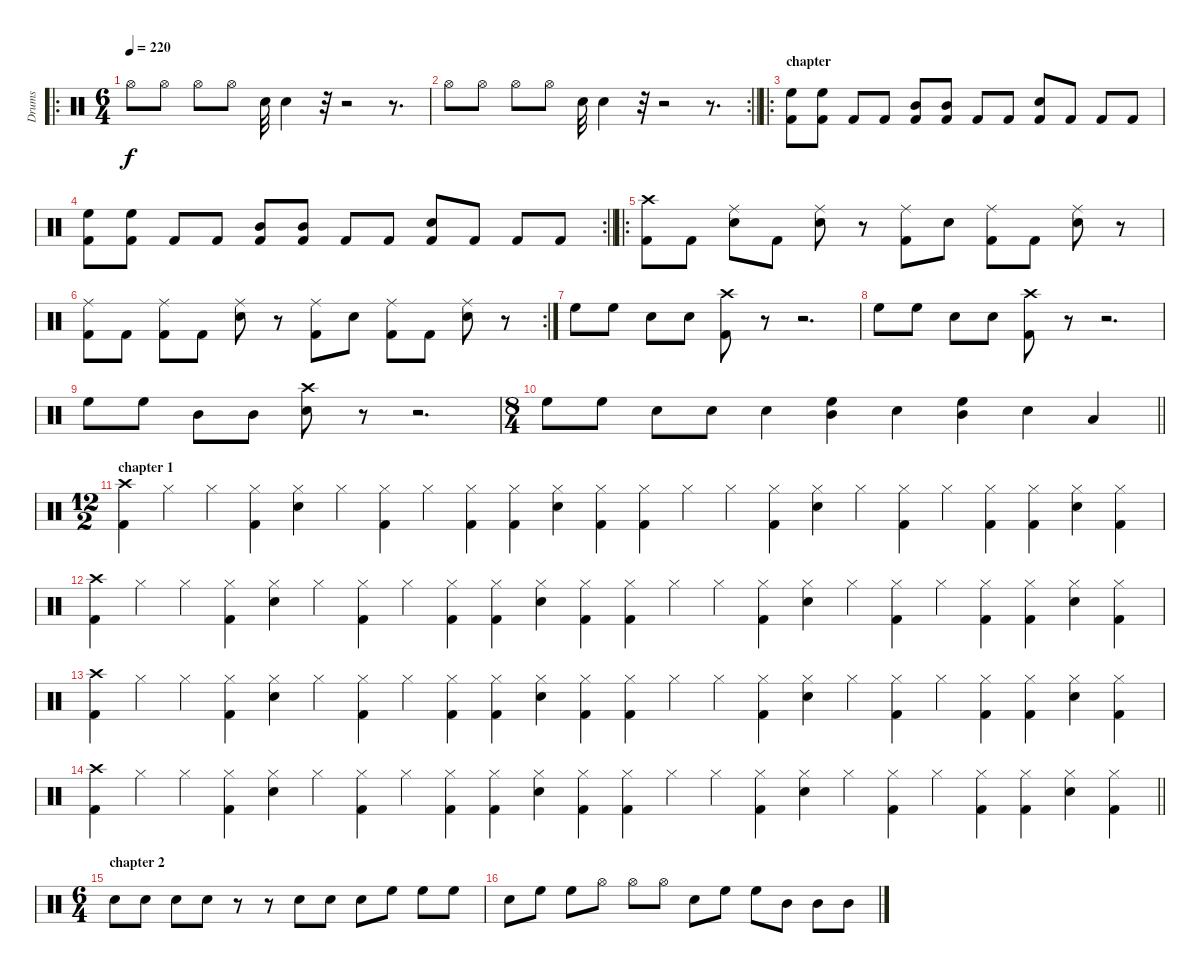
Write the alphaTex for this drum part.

\track ("Drums" "Drums") {instrument percussion}
\staff {score}
\articulation defaults
\ro
\ts (6 4)
\tempo 220
\clef neutral
\ks c "Hi-Hat (open)".8{dy f} "Hi-Hat (open)".8 "Hi-Hat (open)".8 "Hi-Hat (open)".8 "Snare (hit) 2".32 "Snare (hit) 2".4
r.32 r.2 r.8{d} |
\rc 2
\barLineRight lightlight "Hi-Hat (open)".8 "Hi-Hat (open)".8 "Hi-Hat (open)".8 "Hi-Hat (open)".8 "Snare (hit) 2".32 "Snare (hit) 2".4
r.32 r.2 r.8{d} |
\ro
\section ("" "chapter ")
("High Floor Tom (hit)" "Kick (hit) 2").8 ("High Floor Tom (hit)" "Kick (hit) 2").8 "Kick (hit) 2".8 "Kick (hit) 2".8 ("Mid Tom (hit)" "Kick (hit) 2").8 ("Mid Tom (hit)" "Kick (hit) 2").8 "Kick (hit) 2".8 "Kick (hit) 2".8 ("Snare (hit) 2" "Kick (hit) 2").8 "Kick (hit) 2".8 "Kick (hit) 2".8 "Kick (hit) 2".8 |
\rc 2
\barLineRight lightlight
("High Floor Tom (hit)" "Kick (hit) 2").8 ("High Floor Tom (hit)" "Kick (hit) 2").8 "Kick (hit) 2".8 "Kick (hit) 2".8 ("Mid Tom (hit)" "Kick (hit) 2").8 ("Mid Tom (hit)" "Kick (hit) 2").8 "Kick (hit) 2".8 "Kick (hit) 2".8 ("Snare (hit) 2" "Kick (hit) 2").8 "Kick (hit) 2".8 "Kick (hit) 2".8 "Kick (hit) 2".8 |
\ro
\section ("" "")
("Crash high (hit)" "Kick (hit) 2").8 "Kick (hit) 2".8 ("Ride (middle)" "Snare (hit) 2").8 "Kick (hit) 2".8 ("Ride (middle)" "Snare (hit) 2").8 r.8 ("Ride (middle)" "Kick (hit) 2").8 "Snare (hit) 2".8 ("Ride (middle)" "Kick (hit) 2").8 "Kick (hit) 2".8 ("Ride (middle)" "Snare (hit) 2").8 r.8 |
\rc 2
("Ride (middle)" "Kick (hit) 2").8 "Kick (hit) 2".8 ("Ride (middle)" "Kick (hit) 2").8 "Kick (hit) 2".8 ("Ride (middle)" "Snare (hit) 2").8 r.8 ("Ride (middle)" "Kick (hit) 2").8 "Snare (hit) 2".8 ("Ride (middle)" "Kick (hit) 2").8 "Kick (hit) 2".8 ("Ride (middle)" "Snare (hit) 2").8 r.8 |
"High Floor Tom (hit)".8 "High Floor Tom (hit)".8 "Snare (hit) 2".8 "Snare (hit) 2".8 ("Crash high (hit)" "Kick (hit) 2").8 r.8 r.2{d} |
"High Floor Tom (hit)".8 "High Floor Tom (hit)".8 "Snare (hit) 2".8 "Snare (hit) 2".8 ("Crash high (hit)" "Kick (hit) 2").8 r.8 r.2{d} |
"High Floor Tom (hit)".8 "High Floor Tom (hit)".8 "Mid Tom (hit)".8 "Mid Tom (hit)".8 ("Crash high (hit)" "Snare (hit) 2").8 r.8 r.2{d} |
\ts (8 4)
\barLineRight lightlight "High Floor Tom (hit)".8 "High Floor Tom (hit)".8 "Snare (hit) 2".8 "Snare (hit) 2".8 "Snare (hit) 2".4
("Mid Tom (hit)" "High Floor Tom (hit)").4 "Snare (hit) 2".4 ("Mid Tom (hit)" "High Floor Tom (hit)").4 "Snare (hit) 2".4 "Low Tom (hit)".4 |
\ts (12 2)
\section ("" "chapter 1")
("Crash high (hit)" "Kick (hit) 2").4 "Hi-Hat (closed)".4 "Hi-Hat (closed)".4 ("Hi-Hat (closed)" "Kick (hit) 2").4 ("Hi-Hat (closed)" "Snare (hit) 2").4 "Hi-Hat (closed)".4 ("Hi-Hat (closed)" "Kick (hit) 2").4 "Hi-Hat (closed)".4 ("Hi-Hat (closed)" "Kick (hit) 2").4 ("Hi-Hat (closed)" "Kick (hit) 2").4 ("Hi-Hat (closed)" "Snare (hit) 2").4 ("Hi-Hat (closed)" "Kick (hit) 2").4 ("Hi-Hat (closed)" "Kick (hit) 2").4 "Hi-Hat (closed)".4 "Hi-Hat (closed)".4 ("Hi-Hat (closed)" "Kick (hit) 2").4 ("Hi-Hat (closed)" "Snare (hit) 2").4 "Hi-Hat (closed)".4 ("Hi-Hat (closed)" "Kick (hit) 2").4 "Hi-Hat (closed)".4 ("Hi-Hat (closed)" "Kick (hit) 2").4 ("Hi-Hat (closed)" "Kick (hit) 2").4 ("Hi-Hat (closed)" "Snare (hit) 2").4 ("Hi-Hat (closed)" "Kick (hit) 2").4 |
("Crash high (hit)" "Kick (hit) 2").4 "Hi-Hat (closed)".4 "Hi-Hat (closed)".4 ("Hi-Hat (closed)" "Kick (hit) 2").4 ("Hi-Hat (closed)" "Snare (hit) 2").4 "Hi-Hat (closed)".4 ("Hi-Hat (closed)" "Kick (hit) 2").4 "Hi-Hat (closed)".4 ("Hi-Hat (closed)" "Kick (hit) 2").4 ("Hi-Hat (closed)" "Kick (hit) 2").4 ("Hi-Hat (closed)" "Snare (hit) 2").4 ("Hi-Hat (closed)" "Kick (hit) 2").4 ("Hi-Hat (closed)" "Kick (hit) 2").4 "Hi-Hat (closed)".4 "Hi-Hat (closed)".4 ("Hi-Hat (closed)" "Kick (hit) 2").4 ("Hi-Hat (closed)" "Snare (hit) 2").4 "Hi-Hat (closed)".4 ("Hi-Hat (closed)" "Kick (hit) 2").4 "Hi-Hat (closed)".4 ("Hi-Hat (closed)" "Kick (hit) 2").4 ("Hi-Hat (closed)" "Kick (hit) 2").4 ("Hi-Hat (closed)" "Snare (hit) 2").4 ("Hi-Hat (closed)" "Kick (hit) 2").4 |
("Crash high (hit)" "Kick (hit) 2").4 "Hi-Hat (closed)".4 "Hi-Hat (closed)".4 ("Hi-Hat (closed)" "Kick (hit) 2").4 ("Hi-Hat (closed)" "Snare (hit) 2").4 "Hi-Hat (closed)".4 ("Hi-Hat (closed)" "Kick (hit) 2").4 "Hi-Hat (closed)".4 ("Hi-Hat (closed)" "Kick (hit) 2").4 ("Hi-Hat (closed)" "Kick (hit) 2").4 ("Hi-Hat (closed)" "Snare (hit) 2").4 ("Hi-Hat (closed)" "Kick (hit) 2").4 ("Hi-Hat (closed)" "Kick (hit) 2").4 "Hi-Hat (closed)".4 "Hi-Hat (closed)".4 ("Hi-Hat (closed)" "Kick (hit) 2").4 ("Hi-Hat (closed)" "Snare (hit) 2").4 "Hi-Hat (closed)".4 ("Hi-Hat (closed)" "Kick (hit) 2").4 "Hi-Hat (closed)".4 ("Hi-Hat (closed)" "Kick (hit) 2").4 ("Hi-Hat (closed)" "Kick (hit) 2").4 ("Hi-Hat (closed)" "Snare (hit) 2").4 ("Hi-Hat (closed)" "Kick (hit) 2").4 |
\barLineRight lightlight
("Crash high (hit)" "Kick (hit) 2").4 "Hi-Hat (closed)".4 "Hi-Hat (closed)".4 ("Hi-Hat (closed)" "Kick (hit) 2").4 ("Hi-Hat (closed)" "Snare (hit) 2").4 "Hi-Hat (closed)".4 ("Hi-Hat (closed)" "Kick (hit) 2").4 "Hi-Hat (closed)".4 ("Hi-Hat (closed)" "Kick (hit) 2").4 ("Hi-Hat (closed)" "Kick (hit) 2").4 ("Hi-Hat (closed)" "Snare (hit) 2").4 ("Hi-Hat (closed)" "Kick (hit) 2").4 ("Hi-Hat (closed)" "Kick (hit) 2").4 "Hi-Hat (closed)".4 "Hi-Hat (closed)".4 ("Hi-Hat (closed)" "Kick (hit) 2").4 ("Hi-Hat (closed)" "Snare (hit) 2").4 "Hi-Hat (closed)".4 ("Hi-Hat (closed)" "Kick (hit) 2").4 "Hi-Hat (closed)".4 ("Hi-Hat (closed)" "Kick (hit) 2").4 ("Hi-Hat (closed)" "Kick (hit) 2").4 ("Hi-Hat (closed)" "Snare (hit) 2").4 ("Hi-Hat (closed)" "Kick (hit) 2").4 |
\ts (6 4)
\section ("" "chapter 2")
"Snare (hit) 2".8 "Snare (hit) 2".8 "Snare (hit) 2".8 "Snare (hit) 2".8 r.8 r.8 "Snare (hit) 2".8 "Snare (hit) 2".8 "Snare (hit) 2".8 "High Floor Tom (hit)".8 "High Floor Tom (hit)".8 "High Floor Tom (hit)".8 |
"Snare (hit) 2".8 "High Floor Tom (hit)".8 "High Floor Tom (hit)".8 "Hi-Hat (open)".8 "Hi-Hat (open)".8 "Hi-Hat (open)".8 "Snare (hit) 2".8 "High Floor Tom (hit)".8 "High Floor Tom (hit)".8 "Mid Tom (hit)".8 "Mid Tom (hit)".8 "Mid Tom (hit)".8
